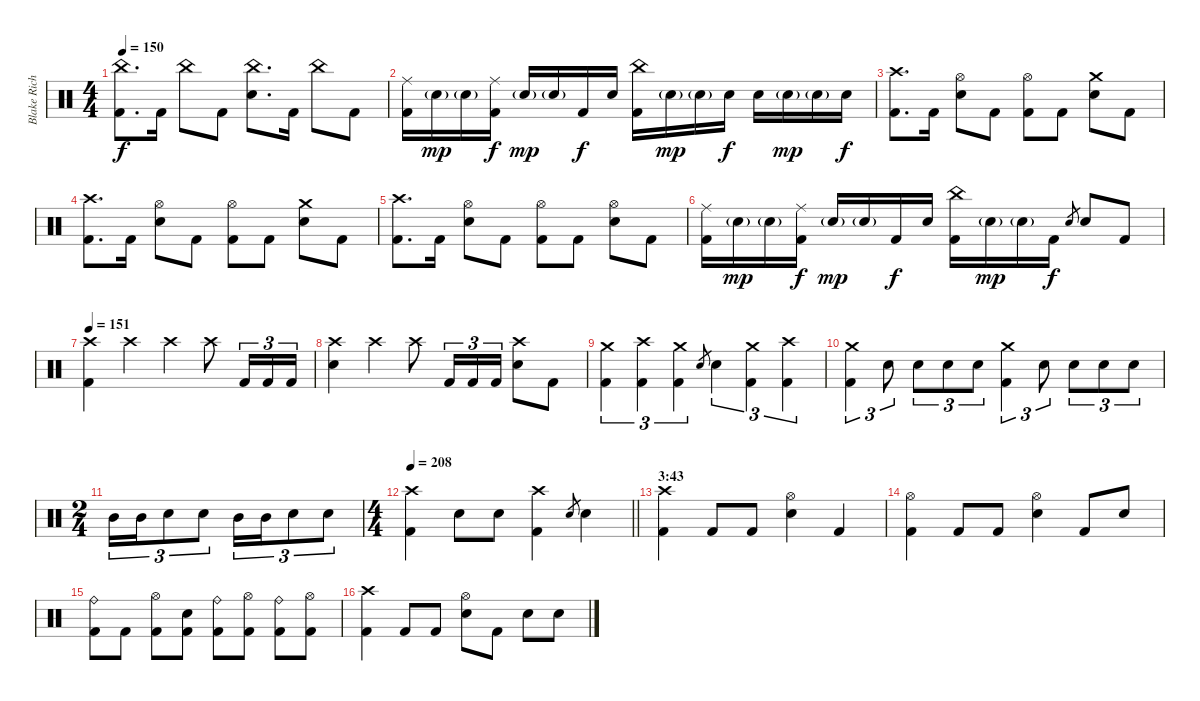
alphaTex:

\track ("Blake Richardson" "Blake Rich") {instrument percussion}
\staff {score}
\articulation defaults
\ts (4 4)
\tempo 150
\clef neutral
\ks c
("China (hit)" "Kick (hit) 2").8{d dy f} "Kick (hit) 2".16 "China (hit)".8 "Kick (hit) 2".8 ("China (hit)" "Electric Snare (hit)").8{d} "Kick (hit) 2".16 "China (hit)".8 "Kick (hit) 2".8 |
("Ride (middle)" "Kick (hit) 2").16 "Electric Snare (hit)"{g}.16{dy mp} "Electric Snare (hit)"{g}.16 ("Ride (middle)" "Kick (hit) 2").16{dy f} "Electric Snare (hit)"{g}.16{dy mp} "Electric Snare (hit)"{g}.16 "Kick (hit) 2".16{dy f} "Electric Snare (hit)".16 ("China (hit)" "Kick (hit) 2").16 "Electric Snare (hit)"{g}.16{dy mp} "Electric Snare (hit)"{g}.16 "Electric Snare (hit)".16{dy f} "Electric Snare (hit)".16 "Electric Snare (hit)"{g}.16{dy mp} "Electric Snare (hit)"{g}.16 "Electric Snare (hit)".16{dy f} |
("Crash high (hit)" "Kick (hit) 2").8{d} "Kick (hit) 2".16 ("Hi-Hat (open)" "Electric Snare (hit)").8 "Kick (hit) 2".8 ("Hi-Hat (open)" "Kick (hit) 2").8 "Kick (hit) 2".8 ("Crash medium (hit)" "Electric Snare (hit)").8 "Kick (hit) 2".8 |
("Crash high (hit)" "Kick (hit) 2").8{d} "Kick (hit) 2".16 ("Hi-Hat (open)" "Electric Snare (hit)").8 "Kick (hit) 2".8 ("Hi-Hat (open)" "Kick (hit) 2").8 "Kick (hit) 2".8 ("Crash medium (hit)" "Electric Snare (hit)").8 "Kick (hit) 2".8 |
("Crash high (hit)" "Kick (hit) 2").8{d} "Kick (hit) 2".16 ("Hi-Hat (open)" "Electric Snare (hit)").8 "Kick (hit) 2".8 ("Hi-Hat (open)" "Kick (hit) 2").8 "Kick (hit) 2".8 ("Hi-Hat (open)" "Electric Snare (hit)").8 "Kick (hit) 2".8 |
("Ride (middle)" "Kick (hit) 2").16 "Electric Snare (hit)"{g}.16{dy mp} "Electric Snare (hit)"{g}.16 ("Ride (middle)" "Kick (hit) 2").16{dy f} "Electric Snare (hit)"{g}.16{dy mp} "Electric Snare (hit)"{g}.16 "Kick (hit) 2".16{dy f} "Electric Snare (hit)".16 ("China (hit)" "Kick (hit) 2").16 "Electric Snare (hit)"{g}.16{dy mp} "Electric Snare (hit)"{g}.16 "Kick (hit) 2".16{dy f} "Electric Snare (hit)".8{gr} "Electric Snare (hit)".8 "Kick (hit) 2".8 |
\tempo 151
("Crash high (hit)" "Kick (hit) 2").4 "Crash high (hit)".4 "Crash high (hit)".4 "Crash high (hit)".8 "Kick (hit) 2".16{tu (3 2)} "Kick (hit) 2".16{tu (3 2)} "Kick (hit) 2".16{tu (3 2)} |
("Crash high (hit)" "Electric Snare (hit)").4 "Crash high (hit)".4 "Crash high (hit)".8 "Kick (hit) 2".16{tu (3 2)} "Kick (hit) 2".16{tu (3 2)} "Kick (hit) 2".16{tu (3 2)} ("Crash high (hit)" "Electric Snare (hit)").8 "Kick (hit) 2".8 |
("Crash medium (hit)" "Kick (hit) 2").4{tu (3 2)} ("Crash high (hit)" "Kick (hit) 2").4{tu (3 2)} ("Crash medium (hit)" "Kick (hit) 2").4{tu (3 2)} "Electric Snare (hit)".8{gr} "Electric Snare (hit)".4{tu (3 2)} ("Crash medium (hit)" "Kick (hit) 2").4{tu (3 2)} ("Crash high (hit)" "Kick (hit) 2").4{tu (3 2)} |
("Crash medium (hit)" "Kick (hit) 2").4{tu (3 2)} "Electric Snare (hit)".8{tu (3 2)} "Electric Snare (hit)".8{tu (3 2)} "Electric Snare (hit)".8{tu (3 2)} "Electric Snare (hit)".8{tu (3 2)} ("Crash medium (hit)" "Kick (hit) 2").4{tu (3 2)} "Electric Snare (hit)".8{tu (3 2)} "Electric Snare (hit)".8{tu (3 2)} "Electric Snare (hit)".8{tu (3 2)} "Electric Snare (hit)".8{tu (3 2)} |
\ts (2 4)
"Mid Tom (hit)".16{tu (3 2)} "Mid Tom (hit)".16{tu (3 2)} "Electric Snare (hit)".8{tu (3 2)} "Electric Snare (hit)".8{tu (3 2)} "Mid Tom (hit)".16{tu (3 2)} "Mid Tom (hit)".16{tu (3 2)} "Electric Snare (hit)".8{tu (3 2)} "Electric Snare (hit)".8{tu (3 2)} |
\ts (4 4)
\tempo 208
\barLineRight lightlight
("Crash high (hit)" "Kick (hit) 2").4 "Electric Snare (hit)".8 "Electric Snare (hit)".8 ("Crash high (hit)" "Kick (hit) 2").4 "Electric Snare (hit)".8{gr} "Electric Snare (hit)".4 |
\section ("" "3:43")
("Crash high (hit)" "Kick (hit) 2").4 "Kick (hit) 2".8 "Kick (hit) 2".8 ("Hi-Hat (open)" "Electric Snare (hit)").4 "Kick (hit) 2".4 |
("Hi-Hat (open)" "Kick (hit) 2").4 "Kick (hit) 2".8 "Kick (hit) 2".8 ("Hi-Hat (open)" "Electric Snare (hit)").4 "Kick (hit) 2".8 "Electric Snare (hit)".8 |
("Ride (bell)" "Kick (hit) 2").8 "Kick (hit) 2".8 ("Hi-Hat (open)" "Kick (hit) 2").8 ("Electric Snare (hit)" "Kick (hit) 2").8 ("Ride (bell)" "Kick (hit) 2").8 ("Hi-Hat (open)" "Kick (hit) 2").8 ("Ride (bell)" "Kick (hit) 2").8 ("Hi-Hat (open)" "Kick (hit) 2").8 |
("Crash high (hit)" "Kick (hit) 2").4 "Kick (hit) 2".8 "Kick (hit) 2".8 ("Hi-Hat (open)" "Electric Snare (hit)").8 "Kick (hit) 2".8 "Electric Snare (hit)".8 "Electric Snare (hit)".8
